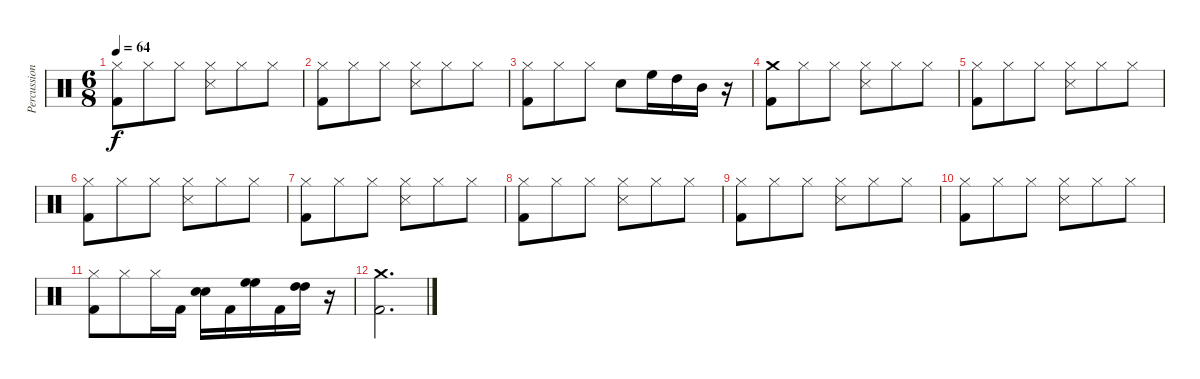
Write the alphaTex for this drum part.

\track ("Percussion" "Percussion") {instrument percussion}
\staff {score}
\articulation defaults
\ts (6 8)
\tempo 64
\clef neutral
\ks c
("Hi-Hat (closed)" "Kick (hit) 2").8{dy f} "Hi-Hat (closed)".8 "Hi-Hat (closed)".8 ("Hi-Hat (closed)" "Snare (side stick) 3").8 "Hi-Hat (closed)".8 "Hi-Hat (closed)".8 |
("Hi-Hat (closed)" "Kick (hit) 2").8 "Hi-Hat (closed)".8 "Hi-Hat (closed)".8 ("Hi-Hat (closed)" "Snare (side stick) 3").8 "Hi-Hat (closed)".8 "Hi-Hat (closed)".8 |
("Hi-Hat (closed)" "Kick (hit) 2").8 "Hi-Hat (closed)".8 "Hi-Hat (closed)".8 "Electric Snare (hit)".8 "High Floor Tom (hit)".16 "High Tom (hit)".16 "Mid Tom (hit)".16 r.16 |
("Crash medium (hit)" "Kick (hit) 2").8 "Hi-Hat (closed)".8 "Hi-Hat (closed)".8 ("Hi-Hat (closed)" "Snare (side stick) 3").8 "Hi-Hat (closed)".8 "Hi-Hat (closed)".8 |
("Hi-Hat (closed)" "Kick (hit) 2").8 "Hi-Hat (closed)".8 "Hi-Hat (closed)".8 ("Hi-Hat (closed)" "Snare (side stick) 3").8 "Hi-Hat (closed)".8 "Hi-Hat (closed)".8 |
("Hi-Hat (closed)" "Kick (hit) 2").8 "Hi-Hat (closed)".8 "Hi-Hat (closed)".8 ("Hi-Hat (closed)" "Snare (side stick) 3").8 "Hi-Hat (closed)".8 "Hi-Hat (closed)".8 |
("Hi-Hat (closed)" "Kick (hit) 2").8 "Hi-Hat (closed)".8 "Hi-Hat (closed)".8 ("Hi-Hat (closed)" "Snare (side stick) 3").8 "Hi-Hat (closed)".8 "Hi-Hat (closed)".8 |
("Hi-Hat (closed)" "Kick (hit) 2").8 "Hi-Hat (closed)".8 "Hi-Hat (closed)".8 ("Hi-Hat (closed)" "Snare (side stick) 3").8 "Hi-Hat (closed)".8 "Hi-Hat (closed)".8 |
("Hi-Hat (closed)" "Kick (hit) 2").8 "Hi-Hat (closed)".8 "Hi-Hat (closed)".8 ("Hi-Hat (closed)" "Snare (side stick) 3").8 "Hi-Hat (closed)".8 "Hi-Hat (closed)".8 |
("Hi-Hat (closed)" "Kick (hit) 2").8 "Hi-Hat (closed)".8 "Hi-Hat (closed)".8 ("Hi-Hat (closed)" "Snare (side stick) 3").8 "Hi-Hat (closed)".8 "Hi-Hat (closed)".8 |
("Hi-Hat (closed)" "Kick (hit) 2").8 "Hi-Hat (closed)".8 "Hi-Hat (closed)".16 "Kick (hit) 2".16 ("Electric Snare (hit)" "Electric Snare (hit)").16 "Kick (hit) 2".16 ("High Floor Tom (hit)" "High Floor Tom (hit)").16 "Kick (hit) 2".16 ("High Tom (hit)" "High Tom (hit)").16 r.16 |
("Crash medium (hit)" "Kick (hit) 2").2{d}
